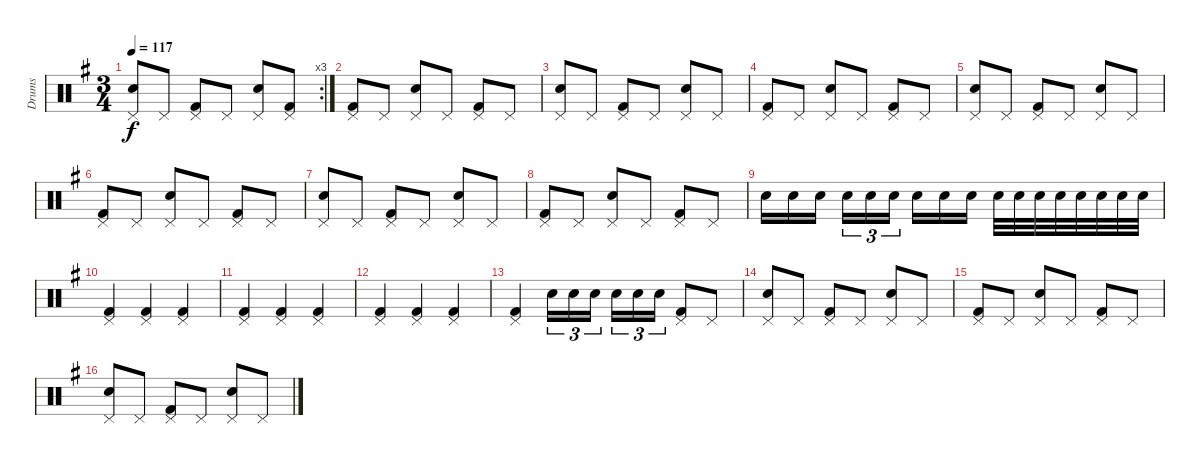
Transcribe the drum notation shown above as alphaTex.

\track ("Drums" "Drums") {instrument percussion}
\staff {score}
\articulation defaults
\rc 3
\ts (3 4)
\tempo 117
\clef neutral
\ks g
("Pedal Hi-Hat (hit)" "Snare (hit) 2").8{dy f} "Pedal Hi-Hat (hit)".8 ("Pedal Hi-Hat (hit)" "Kick (hit) 2").8 "Pedal Hi-Hat (hit)".8 ("Pedal Hi-Hat (hit)" "Snare (hit) 2").8 ("Pedal Hi-Hat (hit)" "Kick (hit) 2").8 |
("Pedal Hi-Hat (hit)" "Kick (hit) 2").8 "Pedal Hi-Hat (hit)".8 ("Pedal Hi-Hat (hit)" "Snare (hit) 2").8 "Pedal Hi-Hat (hit)".8 ("Pedal Hi-Hat (hit)" "Kick (hit) 2").8 "Pedal Hi-Hat (hit)".8 |
("Pedal Hi-Hat (hit)" "Snare (hit) 2").8 "Pedal Hi-Hat (hit)".8 ("Pedal Hi-Hat (hit)" "Kick (hit) 2").8 "Pedal Hi-Hat (hit)".8 ("Pedal Hi-Hat (hit)" "Snare (hit) 2").8 "Pedal Hi-Hat (hit)".8 |
("Pedal Hi-Hat (hit)" "Kick (hit) 2").8 "Pedal Hi-Hat (hit)".8 ("Pedal Hi-Hat (hit)" "Snare (hit) 2").8 "Pedal Hi-Hat (hit)".8 ("Pedal Hi-Hat (hit)" "Kick (hit) 2").8 "Pedal Hi-Hat (hit)".8 |
("Pedal Hi-Hat (hit)" "Snare (hit) 2").8 "Pedal Hi-Hat (hit)".8 ("Pedal Hi-Hat (hit)" "Kick (hit) 2").8 "Pedal Hi-Hat (hit)".8 ("Pedal Hi-Hat (hit)" "Snare (hit) 2").8 "Pedal Hi-Hat (hit)".8 |
("Pedal Hi-Hat (hit)" "Kick (hit) 2").8 "Pedal Hi-Hat (hit)".8 ("Pedal Hi-Hat (hit)" "Snare (hit) 2").8 "Pedal Hi-Hat (hit)".8 ("Pedal Hi-Hat (hit)" "Kick (hit) 2").8 "Pedal Hi-Hat (hit)".8 |
("Pedal Hi-Hat (hit)" "Snare (hit) 2").8 "Pedal Hi-Hat (hit)".8 ("Pedal Hi-Hat (hit)" "Kick (hit) 2").8 "Pedal Hi-Hat (hit)".8 ("Pedal Hi-Hat (hit)" "Snare (hit) 2").8 "Pedal Hi-Hat (hit)".8 |
("Pedal Hi-Hat (hit)" "Kick (hit) 2").8 "Pedal Hi-Hat (hit)".8 ("Pedal Hi-Hat (hit)" "Snare (hit) 2").8 "Pedal Hi-Hat (hit)".8 ("Pedal Hi-Hat (hit)" "Kick (hit) 2").8 "Pedal Hi-Hat (hit)".8 |
"Snare (hit) 2".16 "Snare (hit) 2".16 "Snare (hit) 2".16 "Snare (hit) 2".16{tu (3 2)} "Snare (hit) 2".16{tu (3 2)} "Snare (hit) 2".16{tu (3 2)} "Snare (hit) 2".16 "Snare (hit) 2".16 "Snare (hit) 2".16 "Snare (hit) 2".32 "Snare (hit) 2".32 "Snare (hit) 2".32 "Snare (hit) 2".32 "Snare (hit) 2".32 "Snare (hit) 2".32 "Snare (hit) 2".32 "Snare (hit) 2".32 |
("Pedal Hi-Hat (hit)" "Kick (hit) 2").4 ("Pedal Hi-Hat (hit)" "Kick (hit) 2").4 ("Pedal Hi-Hat (hit)" "Kick (hit) 2").4 |
("Pedal Hi-Hat (hit)" "Kick (hit) 2").4 ("Pedal Hi-Hat (hit)" "Kick (hit) 2").4 ("Pedal Hi-Hat (hit)" "Kick (hit) 2").4 |
("Pedal Hi-Hat (hit)" "Kick (hit) 2").4 ("Pedal Hi-Hat (hit)" "Kick (hit) 2").4 ("Pedal Hi-Hat (hit)" "Kick (hit) 2").4 |
("Pedal Hi-Hat (hit)" "Kick (hit) 2").4 "Snare (hit) 2".16{tu (3 2)} "Snare (hit) 2".16{tu (3 2)} "Snare (hit) 2".16{tu (3 2)} "Snare (hit) 2".16{tu (3 2)} "Snare (hit) 2".16{tu (3 2)} "Snare (hit) 2".16{tu (3 2)} ("Pedal Hi-Hat (hit)" "Kick (hit) 2").8 "Pedal Hi-Hat (hit)".8 |
("Pedal Hi-Hat (hit)" "Snare (hit) 2").8 "Pedal Hi-Hat (hit)".8 ("Pedal Hi-Hat (hit)" "Kick (hit) 2").8 "Pedal Hi-Hat (hit)".8 ("Pedal Hi-Hat (hit)" "Snare (hit) 2").8 "Pedal Hi-Hat (hit)".8 |
("Pedal Hi-Hat (hit)" "Kick (hit) 2").8 "Pedal Hi-Hat (hit)".8 ("Pedal Hi-Hat (hit)" "Snare (hit) 2").8 "Pedal Hi-Hat (hit)".8 ("Pedal Hi-Hat (hit)" "Kick (hit) 2").8 "Pedal Hi-Hat (hit)".8 |
("Pedal Hi-Hat (hit)" "Snare (hit) 2").8 "Pedal Hi-Hat (hit)".8 ("Pedal Hi-Hat (hit)" "Kick (hit) 2").8 "Pedal Hi-Hat (hit)".8 ("Pedal Hi-Hat (hit)" "Snare (hit) 2").8 "Pedal Hi-Hat (hit)".8
